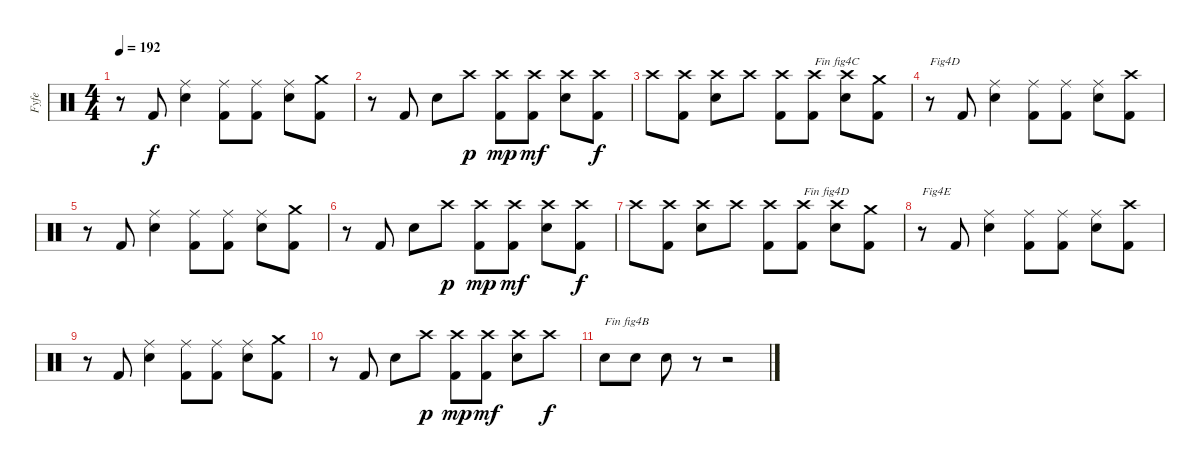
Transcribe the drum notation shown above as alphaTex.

\track ("Fyfe" "Fyfe") {instrument percussion}
\staff {score}
\articulation defaults
\ts (4 4)
\tempo 192
\clef neutral
\ks c
r.8{dy f} "Kick (hit) 2".8 ("Electric Snare (hit)" "Ride (middle)").4 ("Kick (hit) 2" "Ride (middle)").8 ("Kick (hit) 2" "Ride (middle)").8 ("Electric Snare (hit)" "Ride (middle)").8 ("Kick (hit) 2" "Crash medium (hit)").8 |
r.8 "Kick (hit) 2".8 "Electric Snare (hit)".8 "Crash high (hit)".8{dy p} ("Kick (hit) 2" "Crash high (hit)").8{dy mp} ("Kick (hit) 2" "Crash high (hit)").8{dy mf} ("Electric Snare (hit)" "Crash high (hit)").8 ("Kick (hit) 2" "Crash high (hit)").8{dy f} |
"Crash high (hit)".8 ("Kick (hit) 2" "Crash high (hit)").8 ("Electric Snare (hit)" "Crash high (hit)").8 "Crash high (hit)".8 ("Kick (hit) 2" "Crash high (hit)").8 ("Kick (hit) 2" "Crash high (hit)").8{txt "Fin fig4C"} ("Electric Snare (hit)" "Crash high (hit)").8 ("Kick (hit) 2" "Crash medium (hit)").8 |
r.8{txt "Fig4D"} "Kick (hit) 2".8 ("Electric Snare (hit)" "Ride (middle)").4 ("Kick (hit) 2" "Ride (middle)").8 ("Kick (hit) 2" "Ride (middle)").8 ("Electric Snare (hit)" "Ride (middle)").8 ("Kick (hit) 2" "Crash high (hit)").8 |
r.8 "Kick (hit) 2".8 ("Electric Snare (hit)" "Ride (middle)").4 ("Kick (hit) 2" "Ride (middle)").8 ("Kick (hit) 2" "Ride (middle)").8 ("Electric Snare (hit)" "Ride (middle)").8 ("Kick (hit) 2" "Crash medium (hit)").8 |
r.8 "Kick (hit) 2".8 "Electric Snare (hit)".8 "Crash high (hit)".8{dy p} ("Kick (hit) 2" "Crash high (hit)").8{dy mp} ("Kick (hit) 2" "Crash high (hit)").8{dy mf} ("Electric Snare (hit)" "Crash high (hit)").8 ("Kick (hit) 2" "Crash high (hit)").8{dy f} |
"Crash high (hit)".8 ("Kick (hit) 2" "Crash high (hit)").8 ("Electric Snare (hit)" "Crash high (hit)").8 "Crash high (hit)".8 ("Kick (hit) 2" "Crash high (hit)").8 ("Kick (hit) 2" "Crash high (hit)").8{txt "Fin fig4D"} ("Electric Snare (hit)" "Crash high (hit)").8 ("Kick (hit) 2" "Crash medium (hit)").8 |
r.8{txt "Fig4E"} "Kick (hit) 2".8 ("Electric Snare (hit)" "Ride (middle)").4 ("Kick (hit) 2" "Ride (middle)").8 ("Kick (hit) 2" "Ride (middle)").8 ("Electric Snare (hit)" "Ride (middle)").8 ("Kick (hit) 2" "Crash high (hit)").8 |
r.8 "Kick (hit) 2".8 ("Electric Snare (hit)" "Ride (middle)").4 ("Kick (hit) 2" "Ride (middle)").8 ("Kick (hit) 2" "Ride (middle)").8 ("Electric Snare (hit)" "Ride (middle)").8 ("Kick (hit) 2" "Crash medium (hit)").8 |
r.8 "Kick (hit) 2".8 "Electric Snare (hit)".8 "Crash high (hit)".8{dy p} ("Kick (hit) 2" "Crash high (hit)").8{dy mp} ("Kick (hit) 2" "Crash high (hit)").8{dy mf} ("Electric Snare (hit)" "Crash high (hit)").8 "Crash high (hit)".8{dy f} |
"Electric Snare (hit)".8{txt "Fin fig4B"} "Electric Snare (hit)".8 "Electric Snare (hit)".8 r.8 r.2
